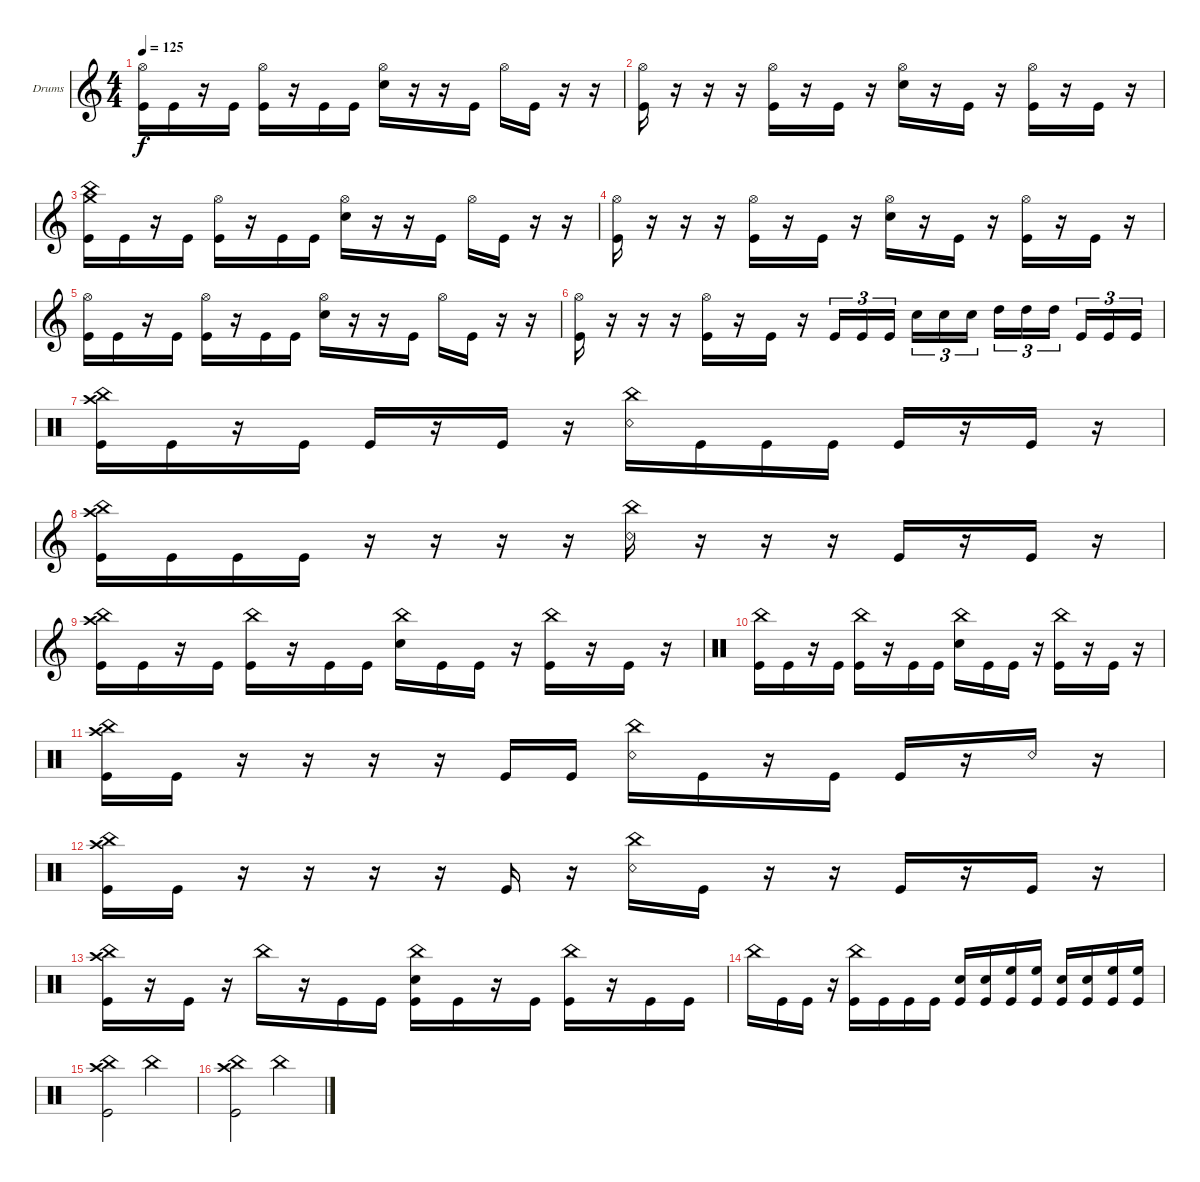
\defaultSystemsLayout 4
\bracketExtendMode groupsimilarinstruments
\firstSystemTrackNameOrientation horizontal
\otherSystemsTrackNameOrientation horizontal
\track ("Drumkit" "Drums") {instrument percussion}
\staff {score}
\articulation defaults
\ts (4 4)
\tempo 125
\clef g2
\ks c
("Kick (hit)" "Hi-Hat (open)").16{dy f} "Kick (hit)".16 r.16 "Kick (hit)".16 ("Kick (hit)" "Hi-Hat (open)").16 r.16 "Kick (hit)".16 "Kick (hit)".16 ("Snare (hit) 2" "Hi-Hat (open)").16 r.16 r.16 "Kick (hit)".16 "Hi-Hat (open)".16 "Kick (hit)".16 r.16 r.16 |
("Kick (hit)" "Hi-Hat (open)").16 r.16 r.16 r.16 ("Kick (hit)" "Hi-Hat (open)").16 r.16 "Kick (hit)".16 r.16 ("Snare (hit) 2" "Hi-Hat (open)").16 r.16 "Kick (hit)".16 r.16 ("Kick (hit)" "Hi-Hat (open)").16 r.16 "Kick (hit)".16 r.16 |
("Kick (hit)" "Crash medium (hit)" "China (hit)").16 "Kick (hit)".16 r.16 "Kick (hit)".16 ("Kick (hit)" "Hi-Hat (open)").16 r.16 "Kick (hit)".16 "Kick (hit)".16 ("Snare (hit) 2" "Hi-Hat (open)").16 r.16 r.16 "Kick (hit)".16 "Hi-Hat (open)".16 "Kick (hit)".16 r.16 r.16 |
("Kick (hit)" "Hi-Hat (open)").16 r.16 r.16 r.16 ("Kick (hit)" "Hi-Hat (open)").16 r.16 "Kick (hit)".16 r.16 ("Snare (hit) 2" "Hi-Hat (open)").16 r.16 "Kick (hit)".16 r.16 ("Kick (hit)" "Hi-Hat (open)").16 r.16 "Kick (hit)".16 r.16 |
("Kick (hit)" "Hi-Hat (open)").16 "Kick (hit)".16 r.16 "Kick (hit)".16 ("Kick (hit)" "Hi-Hat (open)").16 r.16 "Kick (hit)".16 "Kick (hit)".16 ("Snare (hit) 2" "Hi-Hat (open)").16 r.16 r.16 "Kick (hit)".16 "Hi-Hat (open)".16 "Kick (hit)".16 r.16 r.16 |
("Kick (hit)" "Hi-Hat (open)").16 r.16 r.16 r.16 ("Kick (hit)" "Hi-Hat (open)").16 r.16 "Kick (hit)".16 r.16 "Kick (hit)".16{tu (3 2)} "Kick (hit)".16{tu (3 2)} "Kick (hit)".16{tu (3 2)} "Snare (hit) 2".16{tu (3 2)} "Snare (hit) 2".16{tu (3 2)} "Snare (hit) 2".16{tu (3 2)} "High Tom (hit)".16{tu (3 2)} "High Tom (hit)".16{tu (3 2)} "High Tom (hit)".16{tu (3 2)} "Kick (hit)".16{tu (3 2)} "Kick (hit)".16{tu (3 2)} "Kick (hit)".16{tu (3 2)} |
\clef neutral
("Kick (hit)" "China (hit)" "Crash high (hit)").16 "Kick (hit)".16 r.16 "Kick (hit)".16 "Kick (hit)".16 r.16 "Kick (hit)".16 r.16 ("China (hit)" "Snare (rim shot)").16 "Kick (hit)".16 "Kick (hit)".16 "Kick (hit)".16 "Kick (hit)".16 r.16 "Kick (hit)".16 r.16 |
\clef g2
("Kick (hit)" "China (hit)" "Crash high (hit)").16 "Kick (hit)".16 "Kick (hit)".16 "Kick (hit)".16 r.16 r.16 r.16 r.16 ("China (hit)" "Snare (rim shot)").16 r.16 r.16 r.16 "Kick (hit)".16 r.16 "Kick (hit)".16 r.16 |
("Kick (hit)" "China (hit)" "Crash high (hit)").16 "Kick (hit)".16 r.16 "Kick (hit)".16 ("Kick (hit)" "China (hit)").16 r.16 "Kick (hit)".16 "Kick (hit)".16 ("China (hit)" "Snare (hit) 2").16 "Kick (hit)".16 "Kick (hit)".16 r.16 ("Kick (hit)" "China (hit)").16 r.16 "Kick (hit)".16 r.16 |
\clef neutral
("Kick (hit)" "China (hit)").16 "Kick (hit)".16 r.16 "Kick (hit)".16 ("Kick (hit)" "China (hit)").16 r.16 "Kick (hit)".16 "Kick (hit)".16 ("China (hit)" "Snare (hit) 2").16 "Kick (hit)".16 "Kick (hit)".16 r.16 ("Kick (hit)" "China (hit)").16 r.16 "Kick (hit)".16 r.16 |
("Kick (hit)" "China (hit)" "Crash high (hit)").16 "Kick (hit)".16 r.16 r.16 r.16 r.16 "Kick (hit)".16 "Kick (hit)".16 ("China (hit)" "Snare (rim shot)").16 "Kick (hit)".16 r.16 "Kick (hit)".16 "Kick (hit)".16 r.16 "Snare (rim shot)".16 r.16 |
("Kick (hit)" "China (hit)" "Crash high (hit)").16 "Kick (hit)".16 r.16 r.16 r.16 r.16 "Kick (hit)".16 r.16 ("China (hit)" "Snare (rim shot)").16 "Kick (hit)".16 r.16 r.16 "Kick (hit)".16 r.16 "Kick (hit)".16 r.16 |
("Kick (hit)" "China (hit)" "Crash high (hit)").16 r.16 "Kick (hit)".16 r.16 "China (hit)".16 r.16 "Kick (hit)".16 "Kick (hit)".16 ("Kick (hit)" "China (hit)" "Snare (hit) 2").16 "Kick (hit)".16 r.16 "Kick (hit)".16 ("Kick (hit)" "China (hit)").16 r.16 "Kick (hit)".16 "Kick (hit)".16 |
"China (hit)".16 "Kick (hit)".16 "Kick (hit)".16 r.16 ("Kick (hit)" "China (hit)").16 "Kick (hit)".16 "Kick (hit)".16 "Kick (hit)".16 ("Kick (hit)" "Snare (hit) 2").16 ("Kick (hit)" "Snare (hit) 2").16 ("Kick (hit)" "High Floor Tom (hit)").16 ("Kick (hit)" "High Floor Tom (hit)").16 ("Kick (hit)" "Snare (hit) 2").16 ("Kick (hit)" "Snare (hit) 2").16 ("Kick (hit)" "High Floor Tom (hit)").16 ("Kick (hit)" "High Floor Tom (hit)").16 |
("Kick (hit)" "Crash high (hit)" "China (hit)").2 "China (hit)".2 |
("Kick (hit)" "China (hit)" "Crash high (hit)").2 "China (hit)".2
